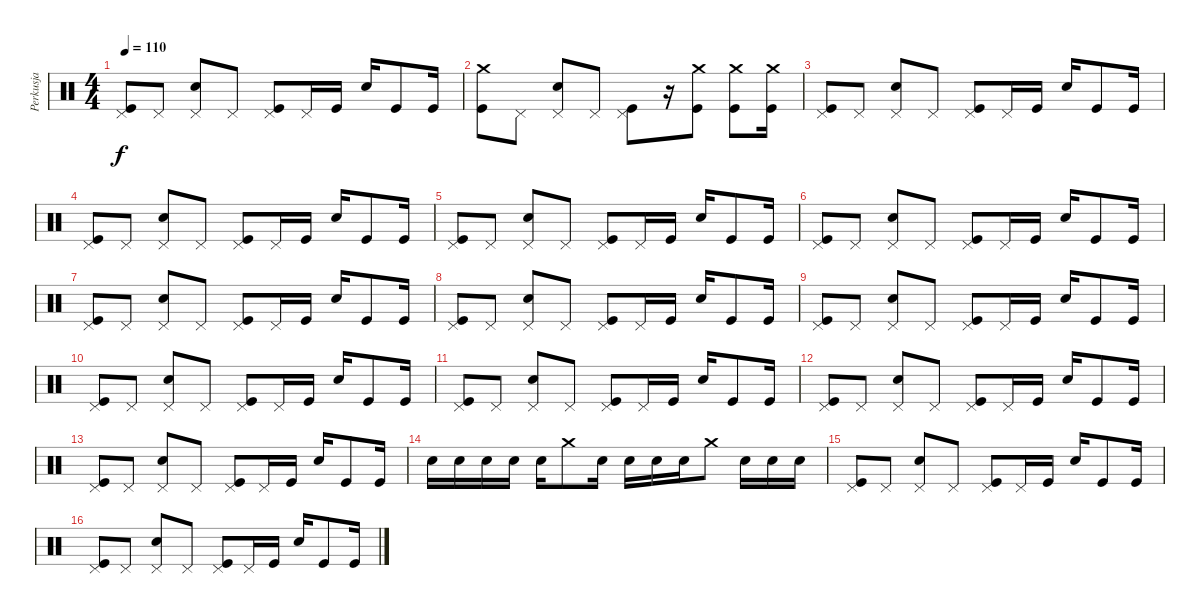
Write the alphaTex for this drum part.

\track ("Perkusja" "Perkusja") {instrument percussion}
\staff {score}
\articulation defaults
\ts (4 4)
\tempo 110
\clef neutral
\ks c
("Pedal Hi-Hat (hit)" "Kick (hit)").8{dy f} "Pedal Hi-Hat (hit)".8 ("Pedal Hi-Hat (hit)" "Snare (hit) 2").8 "Pedal Hi-Hat (hit)".8 ("Pedal Hi-Hat (hit)" "Kick (hit)").8 "Pedal Hi-Hat (hit)".16 "Kick (hit)".16 "Snare (hit) 2".16 "Kick (hit)".8 "Kick (hit)".16 |
("Crash medium (hit)" "Kick (hit)").8 "Pedal Hi-Hat (hit)".8 ("Pedal Hi-Hat (hit)" "Snare (hit) 2").8 "Pedal Hi-Hat (hit)".8 ("Pedal Hi-Hat (hit)" "Kick (hit)").8 r.16 ("Crash medium (hit)" "Kick (hit)").8 ("Crash medium (hit)" "Kick (hit)").8 ("Crash medium (hit)" "Kick (hit)").16 |
("Pedal Hi-Hat (hit)" "Kick (hit)").8 "Pedal Hi-Hat (hit)".8 ("Pedal Hi-Hat (hit)" "Snare (hit) 2").8 "Pedal Hi-Hat (hit)".8 ("Pedal Hi-Hat (hit)" "Kick (hit)").8 "Pedal Hi-Hat (hit)".16 "Kick (hit)".16 "Snare (hit) 2".16 "Kick (hit)".8 "Kick (hit)".16 |
("Pedal Hi-Hat (hit)" "Kick (hit)").8 "Pedal Hi-Hat (hit)".8 ("Pedal Hi-Hat (hit)" "Snare (hit) 2").8 "Pedal Hi-Hat (hit)".8 ("Pedal Hi-Hat (hit)" "Kick (hit)").8 "Pedal Hi-Hat (hit)".16 "Kick (hit)".16 "Snare (hit) 2".16 "Kick (hit)".8 "Kick (hit)".16 |
("Pedal Hi-Hat (hit)" "Kick (hit)").8 "Pedal Hi-Hat (hit)".8 ("Pedal Hi-Hat (hit)" "Snare (hit) 2").8 "Pedal Hi-Hat (hit)".8 ("Pedal Hi-Hat (hit)" "Kick (hit)").8 "Pedal Hi-Hat (hit)".16 "Kick (hit)".16 "Snare (hit) 2".16 "Kick (hit)".8 "Kick (hit)".16 |
("Pedal Hi-Hat (hit)" "Kick (hit)").8 "Pedal Hi-Hat (hit)".8 ("Pedal Hi-Hat (hit)" "Snare (hit) 2").8 "Pedal Hi-Hat (hit)".8 ("Pedal Hi-Hat (hit)" "Kick (hit)").8 "Pedal Hi-Hat (hit)".16 "Kick (hit)".16 "Snare (hit) 2".16 "Kick (hit)".8 "Kick (hit)".16 |
("Pedal Hi-Hat (hit)" "Kick (hit)").8 "Pedal Hi-Hat (hit)".8 ("Pedal Hi-Hat (hit)" "Snare (hit) 2").8 "Pedal Hi-Hat (hit)".8 ("Pedal Hi-Hat (hit)" "Kick (hit)").8 "Pedal Hi-Hat (hit)".16 "Kick (hit)".16 "Snare (hit) 2".16 "Kick (hit)".8 "Kick (hit)".16 |
("Pedal Hi-Hat (hit)" "Kick (hit)").8 "Pedal Hi-Hat (hit)".8 ("Pedal Hi-Hat (hit)" "Snare (hit) 2").8 "Pedal Hi-Hat (hit)".8 ("Pedal Hi-Hat (hit)" "Kick (hit)").8 "Pedal Hi-Hat (hit)".16 "Kick (hit)".16 "Snare (hit) 2".16 "Kick (hit)".8 "Kick (hit)".16 |
("Pedal Hi-Hat (hit)" "Kick (hit)").8 "Pedal Hi-Hat (hit)".8 ("Pedal Hi-Hat (hit)" "Snare (hit) 2").8 "Pedal Hi-Hat (hit)".8 ("Pedal Hi-Hat (hit)" "Kick (hit)").8 "Pedal Hi-Hat (hit)".16 "Kick (hit)".16 "Snare (hit) 2".16 "Kick (hit)".8 "Kick (hit)".16 |
("Pedal Hi-Hat (hit)" "Kick (hit)").8 "Pedal Hi-Hat (hit)".8 ("Pedal Hi-Hat (hit)" "Snare (hit) 2").8 "Pedal Hi-Hat (hit)".8 ("Pedal Hi-Hat (hit)" "Kick (hit)").8 "Pedal Hi-Hat (hit)".16 "Kick (hit)".16 "Snare (hit) 2".16 "Kick (hit)".8 "Kick (hit)".16 |
("Pedal Hi-Hat (hit)" "Kick (hit)").8 "Pedal Hi-Hat (hit)".8 ("Pedal Hi-Hat (hit)" "Snare (hit) 2").8 "Pedal Hi-Hat (hit)".8 ("Pedal Hi-Hat (hit)" "Kick (hit)").8 "Pedal Hi-Hat (hit)".16 "Kick (hit)".16 "Snare (hit) 2".16 "Kick (hit)".8 "Kick (hit)".16 |
("Pedal Hi-Hat (hit)" "Kick (hit)").8 "Pedal Hi-Hat (hit)".8 ("Pedal Hi-Hat (hit)" "Snare (hit) 2").8 "Pedal Hi-Hat (hit)".8 ("Pedal Hi-Hat (hit)" "Kick (hit)").8 "Pedal Hi-Hat (hit)".16 "Kick (hit)".16 "Snare (hit) 2".16 "Kick (hit)".8 "Kick (hit)".16 |
("Pedal Hi-Hat (hit)" "Kick (hit)").8 "Pedal Hi-Hat (hit)".8 ("Pedal Hi-Hat (hit)" "Snare (hit) 2").8 "Pedal Hi-Hat (hit)".8 ("Pedal Hi-Hat (hit)" "Kick (hit)").8 "Pedal Hi-Hat (hit)".16 "Kick (hit)".16 "Snare (hit) 2".16 "Kick (hit)".8 "Kick (hit)".16 |
"Snare (hit) 2".16{volume 5} "Snare (hit) 2".16 "Snare (hit) 2".16 "Snare (hit) 2".16 "Snare (hit) 2".16 "Crash medium (hit)".8 "Snare (hit) 2".16 "Snare (hit) 2".16 "Snare (hit) 2".16 "Snare (hit) 2".16 "Crash medium (hit)".8 "Snare (hit) 2".16 "Snare (hit) 2".16 "Snare (hit) 2".16 |
("Pedal Hi-Hat (hit)" "Kick (hit)").8{volume 13} "Pedal Hi-Hat (hit)".8 ("Pedal Hi-Hat (hit)" "Snare (hit) 2").8 "Pedal Hi-Hat (hit)".8 ("Pedal Hi-Hat (hit)" "Kick (hit)").8 "Pedal Hi-Hat (hit)".16 "Kick (hit)".16 "Snare (hit) 2".16 "Kick (hit)".8 "Kick (hit)".16 |
("Pedal Hi-Hat (hit)" "Kick (hit)").8 "Pedal Hi-Hat (hit)".8 ("Pedal Hi-Hat (hit)" "Snare (hit) 2").8 "Pedal Hi-Hat (hit)".8 ("Pedal Hi-Hat (hit)" "Kick (hit)").8 "Pedal Hi-Hat (hit)".16 "Kick (hit)".16 "Snare (hit) 2".16 "Kick (hit)".8 "Kick (hit)".16
